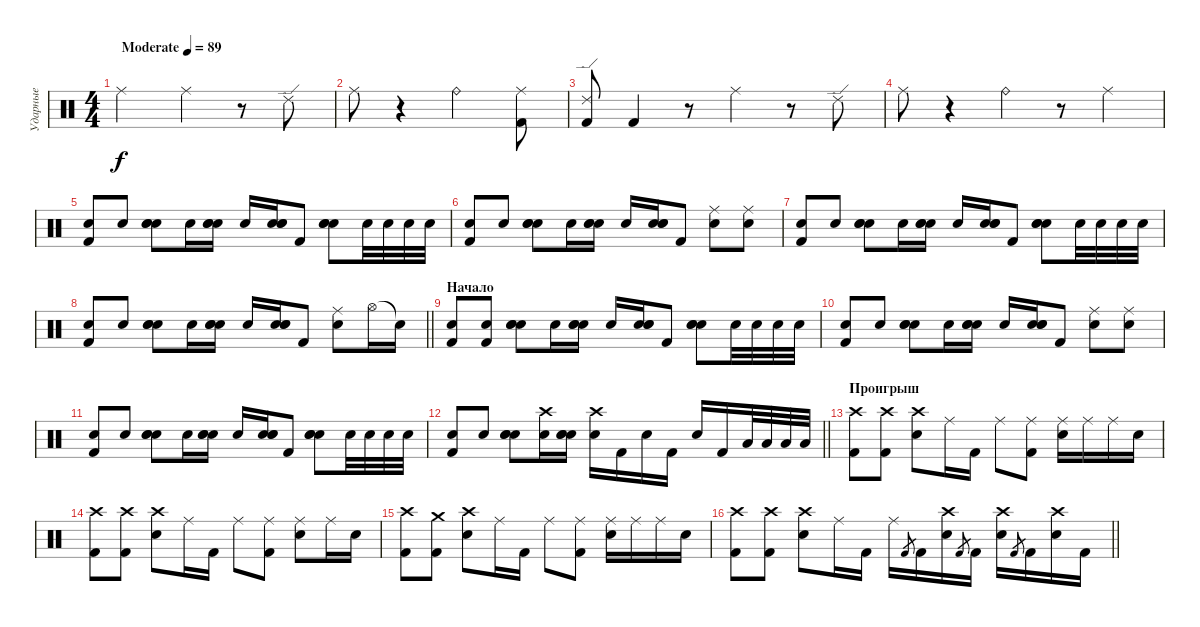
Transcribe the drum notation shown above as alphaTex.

\track ("Ударные" "Ударные") {instrument percussion}
\staff {score}
\articulation defaults
\ts (4 4)
\tempo (89 "Moderate")
\clef neutral
\ks c "Ride (middle)".2{dy f} "Ride (middle)".4
r.8 "Ride (edge) 2".8 |
"Ride (middle)".8 r.4 "Ride (bell)".2 ("Ride (middle)" "Kick (hit) 2").8 |
("Ride (edge) 2" "Kick (hit) 2").8 "Kick (hit) 2".4 r.8 "Ride (middle)".4 r.8 "Ride (edge) 2".8 |
"Ride (middle)".8 r.4 "Ride (bell)".4 r.8 "Ride (middle)".4 |
("Snare (hit) 2" "Kick (hit) 2").8 "Snare (hit) 2".8 ("Snare (hit) 2" "Snare (hit) 2" "Electric Snare (hit)").8 "Snare (hit) 2".16 ("Snare (hit) 2" "Snare (hit) 2" "Electric Snare (hit)").16 "Snare (hit) 2".16 ("Snare (hit) 2" "Snare (hit) 2" "Electric Snare (hit)").16 "Kick (hit) 2".8 ("Snare (hit) 2" "Snare (hit) 2" "Electric Snare (hit)").8 "Snare (hit) 2".32 "Snare (hit) 2".32 "Snare (hit) 2".32 "Snare (hit) 2".32 |
("Snare (hit) 2" "Kick (hit) 2").8 "Snare (hit) 2".8 ("Electric Snare (hit)" "Snare (hit) 2" "Snare (hit) 2").8 "Snare (hit) 2".16 ("Electric Snare (hit)" "Snare (hit) 2" "Snare (hit) 2").16 "Snare (hit) 2".16 ("Electric Snare (hit)" "Snare (hit) 2" "Snare (hit) 2").16 "Kick (hit) 2".8 ("Snare (hit) 2" "Ride (middle)").8 ("Snare (hit) 2" "Ride (middle)").8 |
("Snare (hit) 2" "Kick (hit) 2").8 "Snare (hit) 2".8 ("Snare (hit) 2" "Snare (hit) 2" "Electric Snare (hit)").8 "Snare (hit) 2".16 ("Snare (hit) 2" "Snare (hit) 2" "Electric Snare (hit)").16 "Snare (hit) 2".16 ("Snare (hit) 2" "Snare (hit) 2" "Electric Snare (hit)").16 "Kick (hit) 2".8 ("Snare (hit) 2" "Snare (hit) 2" "Electric Snare (hit)").8 "Snare (hit) 2".32 "Snare (hit) 2".32 "Snare (hit) 2".32 "Snare (hit) 2".32 |
\barLineRight lightlight
("Snare (hit) 2" "Kick (hit) 2").8 "Snare (hit) 2".8 ("Electric Snare (hit)" "Snare (hit) 2" "Snare (hit) 2").8 "Snare (hit) 2".16 ("Electric Snare (hit)" "Snare (hit) 2" "Snare (hit) 2").16 "Snare (hit) 2".16 ("Electric Snare (hit)" "Snare (hit) 2" "Snare (hit) 2").16 "Kick (hit) 2".8 ("Snare (hit) 2" "Ride (middle)").8 "Hi-Hat (open)".16 "Snare (hit)"{t}.16 |
\section ("" "Начало")
("Snare (hit) 2" "Kick (hit) 2").8 ("Snare (hit) 2" "Kick (hit) 2").8 ("Snare (hit) 2" "Snare (hit) 2" "Electric Snare (hit)").8 "Snare (hit) 2".16 ("Snare (hit) 2" "Snare (hit) 2" "Electric Snare (hit)").16 "Snare (hit) 2".16 ("Snare (hit) 2" "Snare (hit) 2" "Electric Snare (hit)").16 "Kick (hit) 2".8 ("Snare (hit) 2" "Snare (hit) 2" "Electric Snare (hit)").8 "Snare (hit) 2".32 "Snare (hit) 2".32 "Snare (hit) 2".32 "Snare (hit) 2".32 |
("Snare (hit) 2" "Kick (hit) 2").8 "Snare (hit) 2".8 ("Electric Snare (hit)" "Snare (hit) 2" "Snare (hit) 2").8 "Snare (hit) 2".16 ("Electric Snare (hit)" "Snare (hit) 2" "Snare (hit) 2").16 "Snare (hit) 2".16 ("Electric Snare (hit)" "Snare (hit) 2" "Snare (hit) 2").16 "Kick (hit) 2".8 ("Snare (hit) 2" "Ride (middle)").8 ("Snare (hit) 2" "Ride (middle)").8 |
("Snare (hit) 2" "Kick (hit) 2").8 "Snare (hit) 2".8 ("Snare (hit) 2" "Snare (hit) 2" "Electric Snare (hit)").8 "Snare (hit) 2".16 ("Snare (hit) 2" "Snare (hit) 2" "Electric Snare (hit)").16 "Snare (hit) 2".16 ("Snare (hit) 2" "Snare (hit) 2" "Electric Snare (hit)").16 "Kick (hit) 2".8 ("Snare (hit) 2" "Snare (hit) 2" "Electric Snare (hit)").8 "Snare (hit) 2".32 "Snare (hit) 2".32 "Snare (hit) 2".32 "Snare (hit) 2".32 |
\barLineRight lightlight
("Snare (hit) 2" "Kick (hit) 2").8 "Snare (hit) 2".8 ("Electric Snare (hit)" "Snare (hit) 2" "Snare (hit) 2").8 ("Snare (hit) 2" "Crash high (hit)").16 ("Electric Snare (hit)" "Snare (hit) 2" "Snare (hit) 2").16 ("Snare (hit) 2" "Crash high (hit)").16 "Kick (hit) 2".16 "Snare (hit) 2".16 "Kick (hit) 2".16 "Snare (hit) 2".16 "Kick (hit) 2".16 "Low Tom (hit)".32 "Low Tom (hit)".32 "Low Tom (hit)".32 "Low Tom (hit)".32 |
\section ("" "Проигрыш")
("Crash high (hit)" "Kick (hit) 2").8 ("Crash high (hit)" "Kick (hit) 2").8 ("Crash high (hit)" "Snare (hit) 2").8 "Ride (middle)".16 "Kick (hit) 2".16 "Ride (middle)".8 ("Ride (middle)" "Kick (hit) 2").8 ("Ride (middle)" "Snare (hit) 2").16 "Ride (middle)".16 "Ride (middle)".16 "Snare (hit) 2".16 |
("Crash high (hit)" "Kick (hit) 2").8 ("Crash high (hit)" "Kick (hit) 2").8 ("Crash high (hit)" "Snare (hit) 2").8 "Ride (middle)".16 "Kick (hit) 2".16 "Ride (middle)".8 ("Ride (middle)" "Kick (hit) 2").8 ("Ride (middle)" "Snare (hit) 2").8 "Ride (middle)".16 "Snare (hit) 2".16 |
("Crash high (hit)" "Kick (hit) 2").8 ("Crash medium (hit)" "Kick (hit) 2").8 ("Crash high (hit)" "Snare (hit) 2").8 "Ride (middle)".16 "Kick (hit) 2".16 "Ride (middle)".8 ("Ride (middle)" "Kick (hit) 2").8 ("Ride (middle)" "Snare (hit) 2").16 "Ride (middle)".16 "Ride (middle)".16 "Snare (hit) 2".16 |
\barLineRight lightlight
("Crash high (hit)" "Kick (hit) 2").8 ("Crash high (hit)" "Kick (hit) 2").8 ("Crash high (hit)" "Snare (hit) 2").8 "Ride (middle)".16 "Kick (hit) 2".16 "Ride (middle)".16 "Kick (hit) 2".8{gr} "Kick (hit) 2".16 ("Crash high (hit)" "Snare (hit) 2").16 "Kick (hit) 2".8{gr} "Kick (hit) 2".16 ("Crash high (hit)" "Snare (hit) 2").16 "Kick (hit) 2".8{gr} "Kick (hit) 2".16 ("Crash high (hit)" "Snare (hit) 2").16 "Kick (hit) 2".16
